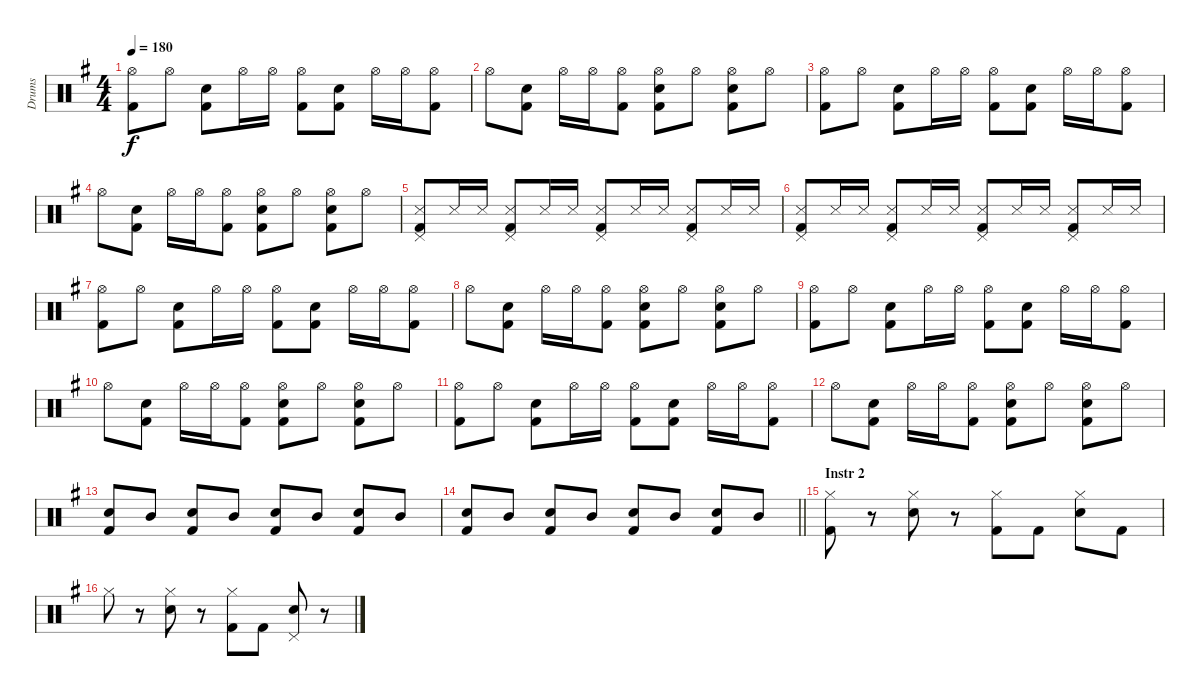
\track ("Drums" "Drums") {instrument percussion bank 255}
\staff {score}
\articulation defaults
\ts (4 4)
\tempo 180
\clef neutral
\ks g
("Hi-Hat (open)" "Kick (hit) 2").8{dy f} "Hi-Hat (open)".8 ("Snare (hit) 2" "Kick (hit) 2").8 "Hi-Hat (open)".16 "Hi-Hat (open)".16 ("Hi-Hat (open)" "Kick (hit) 2").8 ("Snare (hit) 2" "Kick (hit) 2").8 "Hi-Hat (open)".16 "Hi-Hat (open)".16 ("Hi-Hat (open)" "Kick (hit) 2").8 |
"Hi-Hat (open)".8 ("Snare (hit) 2" "Kick (hit) 2").8 "Hi-Hat (open)".16 "Hi-Hat (open)".16 ("Hi-Hat (open)" "Kick (hit) 2").8 ("Hi-Hat (open)" "Snare (hit) 2" "Kick (hit) 2").8 "Hi-Hat (open)".8 ("Hi-Hat (open)" "Snare (hit) 2" "Kick (hit) 2").8 "Hi-Hat (open)".8 |
("Hi-Hat (open)" "Kick (hit) 2").8 "Hi-Hat (open)".8 ("Snare (hit) 2" "Kick (hit) 2").8 "Hi-Hat (open)".16 "Hi-Hat (open)".16 ("Hi-Hat (open)" "Kick (hit) 2").8 ("Snare (hit) 2" "Kick (hit) 2").8 "Hi-Hat (open)".16 "Hi-Hat (open)".16 ("Hi-Hat (open)" "Kick (hit) 2").8 |
"Hi-Hat (open)".8 ("Snare (hit) 2" "Kick (hit) 2").8 "Hi-Hat (open)".16 "Hi-Hat (open)".16 ("Hi-Hat (open)" "Kick (hit) 2").8 ("Hi-Hat (open)" "Snare (hit) 2" "Kick (hit) 2").8 "Hi-Hat (open)".8 ("Hi-Hat (open)" "Snare (hit) 2" "Kick (hit) 2").8 "Hi-Hat (open)".8 |
("Pedal Hi-Hat (hit)" "Snare (side stick) 3" "Kick (hit) 2").8 "Snare (side stick) 3".16 "Snare (side stick) 3".16 ("Pedal Hi-Hat (hit)" "Snare (side stick) 3" "Kick (hit) 2").8 "Snare (side stick) 3".16 "Snare (side stick) 3".16 ("Pedal Hi-Hat (hit)" "Snare (side stick) 3" "Kick (hit) 2").8 "Snare (side stick) 3".16 "Snare (side stick) 3".16 ("Pedal Hi-Hat (hit)" "Snare (side stick) 3" "Kick (hit) 2").8 "Snare (side stick) 3".16 "Snare (side stick) 3".16 |
("Pedal Hi-Hat (hit)" "Snare (side stick) 3" "Kick (hit) 2").8 "Snare (side stick) 3".16 "Snare (side stick) 3".16 ("Pedal Hi-Hat (hit)" "Snare (side stick) 3" "Kick (hit) 2").8 "Snare (side stick) 3".16 "Snare (side stick) 3".16 ("Pedal Hi-Hat (hit)" "Snare (side stick) 3" "Kick (hit) 2").8 "Snare (side stick) 3".16 "Snare (side stick) 3".16 ("Pedal Hi-Hat (hit)" "Snare (side stick) 3" "Kick (hit) 2").8 "Snare (side stick) 3".16 "Snare (side stick) 3".16 |
("Hi-Hat (open)" "Kick (hit) 2").8 "Hi-Hat (open)".8 ("Snare (hit) 2" "Kick (hit) 2").8 "Hi-Hat (open)".16 "Hi-Hat (open)".16 ("Hi-Hat (open)" "Kick (hit) 2").8 ("Snare (hit) 2" "Kick (hit) 2").8 "Hi-Hat (open)".16 "Hi-Hat (open)".16 ("Hi-Hat (open)" "Kick (hit) 2").8 |
"Hi-Hat (open)".8 ("Snare (hit) 2" "Kick (hit) 2").8 "Hi-Hat (open)".16 "Hi-Hat (open)".16 ("Hi-Hat (open)" "Kick (hit) 2").8 ("Hi-Hat (open)" "Snare (hit) 2" "Kick (hit) 2").8 "Hi-Hat (open)".8 ("Hi-Hat (open)" "Snare (hit) 2" "Kick (hit) 2").8 "Hi-Hat (open)".8 |
("Hi-Hat (open)" "Kick (hit) 2").8 "Hi-Hat (open)".8 ("Snare (hit) 2" "Kick (hit) 2").8 "Hi-Hat (open)".16 "Hi-Hat (open)".16 ("Hi-Hat (open)" "Kick (hit) 2").8 ("Snare (hit) 2" "Kick (hit) 2").8 "Hi-Hat (open)".16 "Hi-Hat (open)".16 ("Hi-Hat (open)" "Kick (hit) 2").8 |
"Hi-Hat (open)".8 ("Snare (hit) 2" "Kick (hit) 2").8 "Hi-Hat (open)".16 "Hi-Hat (open)".16 ("Hi-Hat (open)" "Kick (hit) 2").8 ("Hi-Hat (open)" "Snare (hit) 2" "Kick (hit) 2").8 "Hi-Hat (open)".8 ("Hi-Hat (open)" "Snare (hit) 2" "Kick (hit) 2").8 "Hi-Hat (open)".8 |
("Hi-Hat (open)" "Kick (hit) 2").8 "Hi-Hat (open)".8 ("Snare (hit) 2" "Kick (hit) 2").8 "Hi-Hat (open)".16 "Hi-Hat (open)".16 ("Hi-Hat (open)" "Kick (hit) 2").8 ("Snare (hit) 2" "Kick (hit) 2").8 "Hi-Hat (open)".16 "Hi-Hat (open)".16 ("Hi-Hat (open)" "Kick (hit) 2").8 |
"Hi-Hat (open)".8 ("Snare (hit) 2" "Kick (hit) 2").8 "Hi-Hat (open)".16 "Hi-Hat (open)".16 ("Hi-Hat (open)" "Kick (hit) 2").8 ("Hi-Hat (open)" "Snare (hit) 2" "Kick (hit) 2").8 "Hi-Hat (open)".8 ("Hi-Hat (open)" "Snare (hit) 2" "Kick (hit) 2").8 "Hi-Hat (open)".8 |
("Snare (hit) 2" "Kick (hit) 2").8 "Mid Tom (hit)".8 ("Snare (hit) 2" "Kick (hit) 2").8 "Mid Tom (hit)".8 ("Snare (hit) 2" "Kick (hit) 2").8 "Mid Tom (hit)".8 ("Snare (hit) 2" "Kick (hit) 2").8 "Mid Tom (hit)".8 |
\barLineRight lightlight
("Snare (hit) 2" "Kick (hit) 2").8 "Mid Tom (hit)".8 ("Snare (hit) 2" "Kick (hit) 2").8 "Mid Tom (hit)".8 ("Snare (hit) 2" "Kick (hit) 2").8 "Mid Tom (hit)".8 ("Snare (hit) 2" "Kick (hit) 2").8 "Mid Tom (hit)".8 |
\section ("" "Instr 2")
("Hi-Hat (closed)" "Kick (hit) 2").8 r.8 ("Hi-Hat (closed)" "Snare (hit) 2").8 r.8 ("Hi-Hat (closed)" "Kick (hit) 2").8 "Kick (hit) 2".8 ("Hi-Hat (closed)" "Snare (hit) 2").8 "Kick (hit) 2".8 |
"Hi-Hat (closed)".8 r.8 ("Hi-Hat (closed)" "Snare (hit) 2").8 r.8 ("Hi-Hat (closed)" "Kick (hit) 2").8 "Kick (hit) 2".8 ("Pedal Hi-Hat (hit)" "Snare (hit) 2").8 r.8
